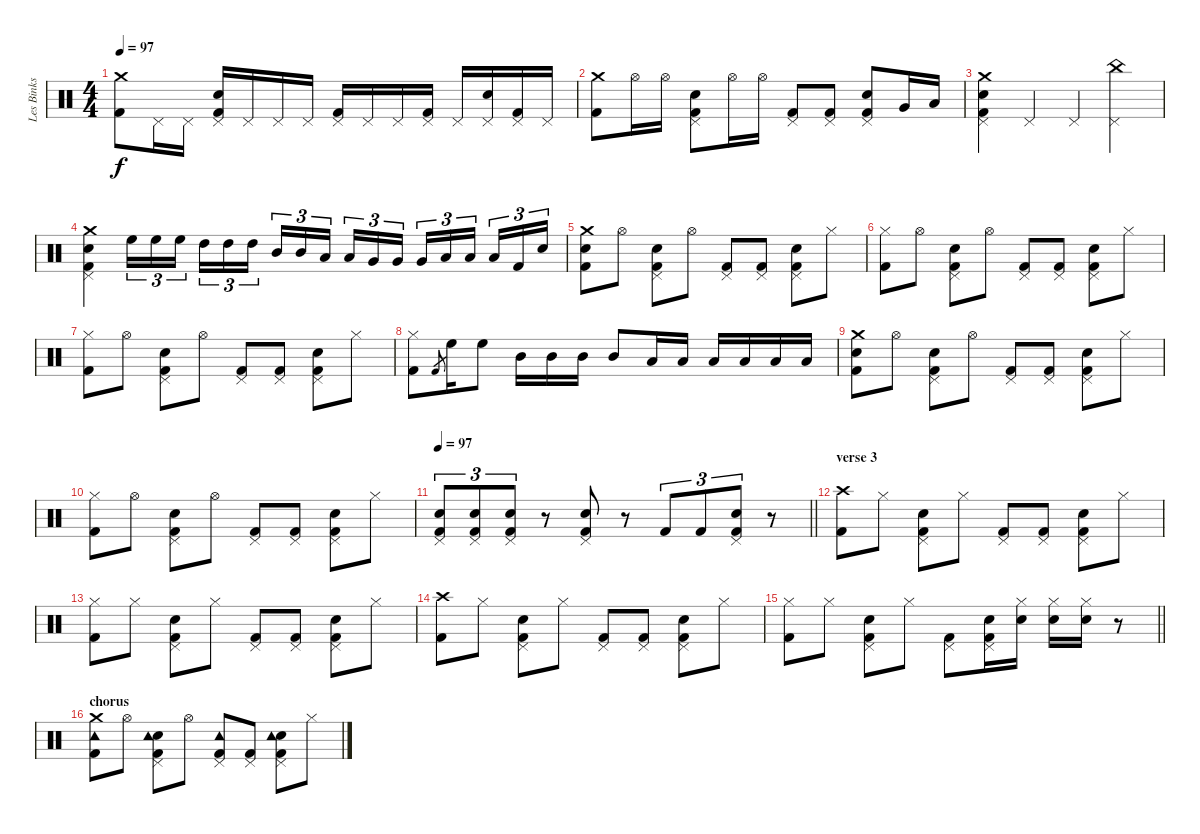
\track ("Les Binks" "Les Binks") {instrument percussion}
\staff {score}
\articulation defaults
\ts (4 4)
\tempo 97
\clef neutral
\ks c
("Crash medium (hit)" "Kick (hit) 2").8{dy f} "Pedal Hi-Hat (hit)".16 "Pedal Hi-Hat (hit)".16 ("Pedal Hi-Hat (hit)" "Electric Snare (hit)" "Kick (hit) 2").16 "Pedal Hi-Hat (hit)".16 "Pedal Hi-Hat (hit)".16 "Pedal Hi-Hat (hit)".16 ("Pedal Hi-Hat (hit)" "Kick (hit) 2").16 "Pedal Hi-Hat (hit)".16 "Pedal Hi-Hat (hit)".16 ("Pedal Hi-Hat (hit)" "Kick (hit) 2").16 "Pedal Hi-Hat (hit)".16 ("Pedal Hi-Hat (hit)" "Electric Snare (hit)").16 ("Pedal Hi-Hat (hit)" "Kick (hit) 2").16 "Pedal Hi-Hat (hit)".16 |
("Crash medium (hit)" "Kick (hit) 2").8 "Hi-Hat (open)".16 "Hi-Hat (open)".16 ("Pedal Hi-Hat (hit)" "Snare (hit) 2" "Kick (hit) 2").8 "Hi-Hat (open)".16 "Hi-Hat (open)".16 ("Pedal Hi-Hat (hit)" "Kick (hit) 2").8 ("Pedal Hi-Hat (hit)" "Kick (hit) 2").8 ("Pedal Hi-Hat (hit)" "Snare (hit) 2" "Kick (hit) 2").8 "Very Low Tom (hit)".16 "Low Floor Tom (hit)".16 |
("Crash medium (hit)" "Pedal Hi-Hat (hit)" "Snare (hit) 2" "Kick (hit) 2").4 "Pedal Hi-Hat (hit)".4 "Pedal Hi-Hat (hit)".4 ("China (hit)" "Pedal Hi-Hat (hit)").4 |
("Crash medium (hit)" "Pedal Hi-Hat (hit)" "Snare (hit) 2" "Kick (hit) 2").4 "High Floor Tom (hit)".16{tu (3 2)} "High Floor Tom (hit)".16{tu (3 2)} "High Floor Tom (hit)".16{tu (3 2) beam splitsecondary} "High Tom (hit)".16{tu (3 2)} "High Tom (hit)".16{tu (3 2)} "High Tom (hit)".16{tu (3 2)} "Mid Tom (hit)".16{tu (3 2)} "Mid Tom (hit)".16{tu (3 2)} "Low Tom (hit)".16{tu (3 2) beam splitsecondary} "Low Tom (hit)".16{tu (3 2)} "Very Low Tom (hit)".16{tu (3 2)} "Very Low Tom (hit)".16{tu (3 2)} "Very Low Tom (hit)".16{tu (3 2)} "Low Floor Tom (hit)".16{tu (3 2)} "Low Floor Tom (hit)".16{tu (3 2) beam splitsecondary} "Low Floor Tom (hit)".16{tu (3 2)} "Kick (hit) 2".16{tu (3 2)} "Electric Snare (hit)".16{tu (3 2)} |
("Crash medium (hit)" "Snare (hit)" "Kick (hit) 2").8 "Hi-Hat (open)".8 ("Pedal Hi-Hat (hit)" "Snare (hit) 2" "Kick (hit) 2").8 "Hi-Hat (open)".8 ("Pedal Hi-Hat (hit)" "Kick (hit) 2").8 ("Pedal Hi-Hat (hit)" "Kick (hit) 2").8 ("Pedal Hi-Hat (hit)" "Snare (hit) 2" "Kick (hit) 2").8 "Hi-Hat (closed)".8 |
("Hi-Hat (closed)" "Kick (hit) 2").8 "Hi-Hat (open)".8 ("Pedal Hi-Hat (hit)" "Snare (hit) 2" "Kick (hit) 2").8 "Hi-Hat (open)".8 ("Pedal Hi-Hat (hit)" "Kick (hit) 2").8 ("Pedal Hi-Hat (hit)" "Kick (hit) 2").8 ("Pedal Hi-Hat (hit)" "Snare (hit) 2" "Kick (hit) 2").8 "Hi-Hat (closed)".8 |
("Hi-Hat (closed)" "Kick (hit) 2").8 "Hi-Hat (open)".8 ("Pedal Hi-Hat (hit)" "Snare (hit) 2" "Kick (hit) 2").8 "Hi-Hat (open)".8 ("Pedal Hi-Hat (hit)" "Kick (hit) 2").8 ("Pedal Hi-Hat (hit)" "Kick (hit) 2").8 ("Pedal Hi-Hat (hit)" "Snare (hit) 2" "Kick (hit) 2").8 "Hi-Hat (closed)".8 |
("Hi-Hat (closed)" "Kick (hit) 2").8 "Kick (hit) 2".8{gr} "High Floor Tom (hit)".16 "High Floor Tom (hit)".8 "Mid Tom (hit)".16 "Mid Tom (hit)".16 "Mid Tom (hit)".16 "Mid Tom (hit)".8 "Low Tom (hit)".16 "Low Tom (hit)".16 "Low Tom (hit)".16 "Low Tom (hit)".16 "Low Tom (hit)".16 "Low Tom (hit)".16 |
("Crash medium (hit)" "Snare (hit)" "Kick (hit) 2").8 "Hi-Hat (open)".8 ("Pedal Hi-Hat (hit)" "Snare (hit) 2" "Kick (hit) 2").8 "Hi-Hat (open)".8 ("Pedal Hi-Hat (hit)" "Kick (hit) 2").8 ("Pedal Hi-Hat (hit)" "Kick (hit) 2").8 ("Pedal Hi-Hat (hit)" "Snare (hit) 2" "Kick (hit) 2").8 "Hi-Hat (closed)".8 |
("Hi-Hat (closed)" "Kick (hit) 2").8 "Hi-Hat (open)".8 ("Pedal Hi-Hat (hit)" "Snare (hit) 2" "Kick (hit) 2").8 "Hi-Hat (open)".8 ("Pedal Hi-Hat (hit)" "Kick (hit) 2").8 ("Pedal Hi-Hat (hit)" "Kick (hit) 2").8 ("Pedal Hi-Hat (hit)" "Snare (hit) 2" "Kick (hit) 2").8 "Hi-Hat (closed)".8 |
\tempo 97
\barLineRight lightlight
("Pedal Hi-Hat (hit)" "Snare (hit) 2" "Kick (hit) 2").8{tu (3 2)} ("Pedal Hi-Hat (hit)" "Snare (hit) 2" "Kick (hit) 2").8{tu (3 2)} ("Pedal Hi-Hat (hit)" "Snare (hit) 2" "Kick (hit) 2").8{tu (3 2)} r.8 ("Pedal Hi-Hat (hit)" "Snare (hit) 2" "Kick (hit) 2").8 r.8 "Kick (hit) 2".8{tu (3 2)} "Kick (hit) 2".8{tu (3 2)} ("Pedal Hi-Hat (hit)" "Snare (hit) 2" "Kick (hit) 2").8{tu (3 2)} r.8 |
\section ("" "verse 3")
("Crash high (hit)" "Kick (hit) 2").8 "Hi-Hat (closed)".8 ("Pedal Hi-Hat (hit)" "Snare (hit) 2" "Kick (hit) 2").8 "Hi-Hat (closed)".8 ("Pedal Hi-Hat (hit)" "Kick (hit) 2").8 ("Pedal Hi-Hat (hit)" "Kick (hit) 2").8 ("Pedal Hi-Hat (hit)" "Snare (hit) 2" "Kick (hit) 2").8 "Hi-Hat (closed)".8 |
("Hi-Hat (closed)" "Kick (hit) 2").8 "Hi-Hat (closed)".8 ("Pedal Hi-Hat (hit)" "Snare (hit) 2" "Kick (hit) 2").8 "Hi-Hat (closed)".8 ("Pedal Hi-Hat (hit)" "Kick (hit) 2").8 ("Pedal Hi-Hat (hit)" "Kick (hit) 2").8 ("Pedal Hi-Hat (hit)" "Snare (hit) 2" "Kick (hit) 2").8 "Hi-Hat (closed)".8 |
("Crash high (hit)" "Kick (hit) 2").8 "Hi-Hat (closed)".8 ("Pedal Hi-Hat (hit)" "Snare (hit) 2" "Kick (hit) 2").8 "Hi-Hat (closed)".8 ("Pedal Hi-Hat (hit)" "Kick (hit) 2").8 ("Pedal Hi-Hat (hit)" "Kick (hit) 2").8 ("Pedal Hi-Hat (hit)" "Snare (hit) 2" "Kick (hit) 2").8 "Hi-Hat (closed)".8 |
\barLineRight lightlight
("Hi-Hat (closed)" "Kick (hit) 2").8 "Hi-Hat (closed)".8 ("Pedal Hi-Hat (hit)" "Snare (hit) 2" "Kick (hit) 2").8 "Hi-Hat (closed)".8 ("Pedal Hi-Hat (hit)" "Kick (hit) 2").8 ("Pedal Hi-Hat (hit)" "Snare (hit) 2" "Kick (hit) 2").16 ("Hi-Hat (closed)" "Snare (hit) 2").16 ("Hi-Hat (closed)" "Snare (hit) 2").16 ("Hi-Hat (closed)" "Snare (hit) 2").16 r.8 |
\section ("" "chorus")
("Crash medium (hit)" "Tambourine (hit)" "Kick (hit) 2").8 "Hi-Hat (open)".8 ("Pedal Hi-Hat (hit)" "Electric Snare (hit)" "Tambourine (hit)" "Kick (hit) 2").8 "Hi-Hat (open)".8 ("Pedal Hi-Hat (hit)" "Tambourine (hit)" "Kick (hit) 2").8 ("Pedal Hi-Hat (hit)" "Kick (hit) 2").8 ("Pedal Hi-Hat (hit)" "Electric Snare (hit)" "Tambourine (hit)" "Kick (hit) 2").8 "Hi-Hat (closed)".8
